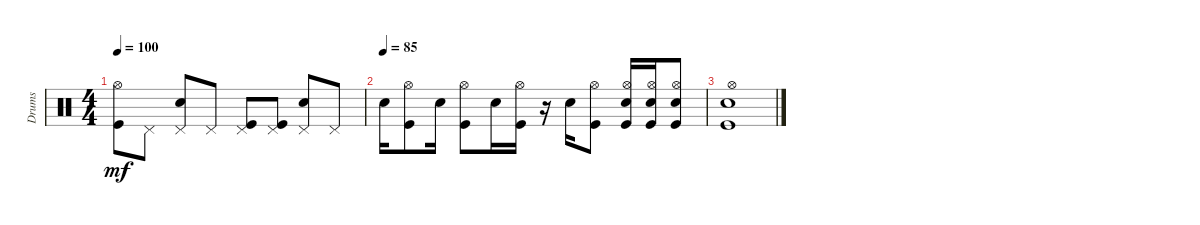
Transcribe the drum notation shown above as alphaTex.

\track ("Drums" "Drums") {instrument percussion}
\staff {score}
\articulation defaults
\ts (4 4)
\tempo 100
\clef neutral
\ks c
("Kick (hit)" "Hi-Hat (open)").8{dy mf} "Pedal Hi-Hat (hit)".8 ("Electric Snare (hit)" "Pedal Hi-Hat (hit)").8 "Pedal Hi-Hat (hit)".8 ("Kick (hit)" "Pedal Hi-Hat (hit)").8 ("Kick (hit)" "Pedal Hi-Hat (hit)").8 ("Electric Snare (hit)" "Pedal Hi-Hat (hit)").8 "Pedal Hi-Hat (hit)".8 |
\tempo (85)
"Electric Snare (hit)".16 ("Kick (hit)" "Hi-Hat (open)").8 "Electric Snare (hit)".16 ("Kick (hit)" "Hi-Hat (open)").8 "Electric Snare (hit)".16 ("Kick (hit)" "Hi-Hat (open)").16 r.16 "Electric Snare (hit)".16 ("Kick (hit)" "Hi-Hat (open)").8 ("Kick (hit)" "Electric Snare (hit)" "Hi-Hat (open)").16 ("Kick (hit)" "Electric Snare (hit)" "Hi-Hat (open)").16 ("Kick (hit)" "Electric Snare (hit)" "Hi-Hat (open)").8 |
("Kick (hit)" "Electric Snare (hit)" "Hi-Hat (open)").1
